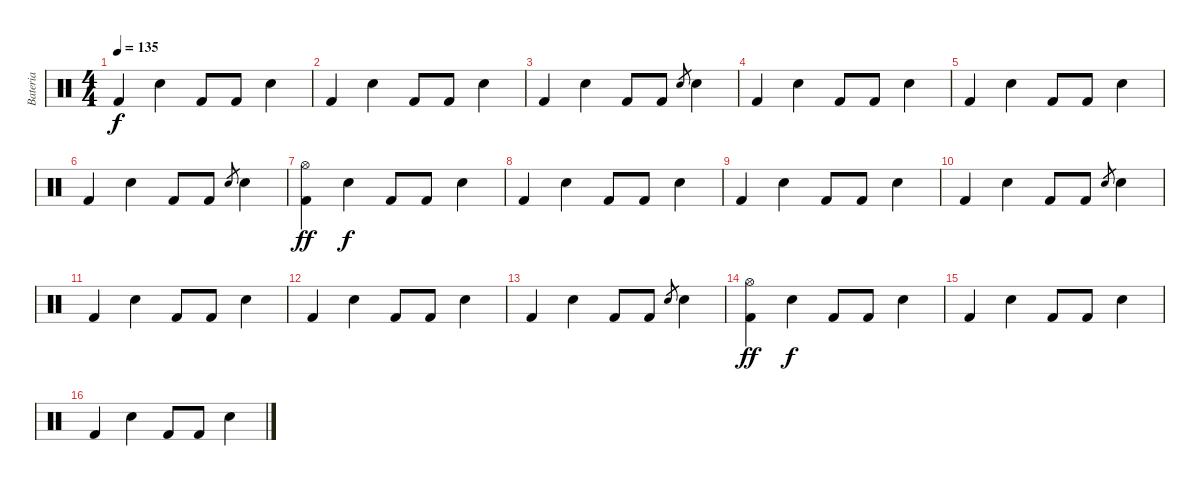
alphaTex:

\track ("Bateria" "Bateria") {instrument percussion}
\staff {score}
\articulation defaults
\ts (4 4)
\tempo 135
\clef neutral
\ks c "Kick (hit) 2".4{dy f} "Electric Snare (hit)".4 "Kick (hit) 2".8 "Kick (hit) 2".8 "Electric Snare (hit)".4
|
"Kick (hit) 2".4 "Electric Snare (hit)".4 "Kick (hit) 2".8 "Kick (hit) 2".8 "Electric Snare (hit)".4 |
"Kick (hit) 2".4 "Electric Snare (hit)".4 "Kick (hit) 2".8 "Kick (hit) 2".8 "Electric Snare (hit)".8{gr} "Electric Snare (hit)".4 |
"Kick (hit) 2".4 "Electric Snare (hit)".4 "Kick (hit) 2".8 "Kick (hit) 2".8 "Electric Snare (hit)".4 |
"Kick (hit) 2".4 "Electric Snare (hit)".4 "Kick (hit) 2".8 "Kick (hit) 2".8 "Electric Snare (hit)".4 |
"Kick (hit) 2".4 "Electric Snare (hit)".4 "Kick (hit) 2".8 "Kick (hit) 2".8 "Electric Snare (hit)".8{gr} "Electric Snare (hit)".4 |
("Hi-Hat (open)" "Kick (hit) 2").4{dy ff} "Electric Snare (hit)".4{dy f} "Kick (hit) 2".8 "Kick (hit) 2".8 "Electric Snare (hit)".4 |
"Kick (hit) 2".4 "Electric Snare (hit)".4 "Kick (hit) 2".8 "Kick (hit) 2".8 "Electric Snare (hit)".4 |
"Kick (hit) 2".4 "Electric Snare (hit)".4 "Kick (hit) 2".8 "Kick (hit) 2".8 "Electric Snare (hit)".4 |
"Kick (hit) 2".4 "Electric Snare (hit)".4 "Kick (hit) 2".8 "Kick (hit) 2".8 "Electric Snare (hit)".8{gr} "Electric Snare (hit)".4 |
"Kick (hit) 2".4 "Electric Snare (hit)".4 "Kick (hit) 2".8 "Kick (hit) 2".8 "Electric Snare (hit)".4 |
"Kick (hit) 2".4 "Electric Snare (hit)".4 "Kick (hit) 2".8 "Kick (hit) 2".8 "Electric Snare (hit)".4 |
"Kick (hit) 2".4 "Electric Snare (hit)".4 "Kick (hit) 2".8 "Kick (hit) 2".8 "Electric Snare (hit)".8{gr} "Electric Snare (hit)".4 |
("Hi-Hat (open)" "Kick (hit) 2").4{dy ff} "Electric Snare (hit)".4{dy f} "Kick (hit) 2".8 "Kick (hit) 2".8 "Electric Snare (hit)".4 |
"Kick (hit) 2".4 "Electric Snare (hit)".4 "Kick (hit) 2".8 "Kick (hit) 2".8 "Electric Snare (hit)".4 |
"Kick (hit) 2".4 "Electric Snare (hit)".4 "Kick (hit) 2".8 "Kick (hit) 2".8 "Electric Snare (hit)".4
